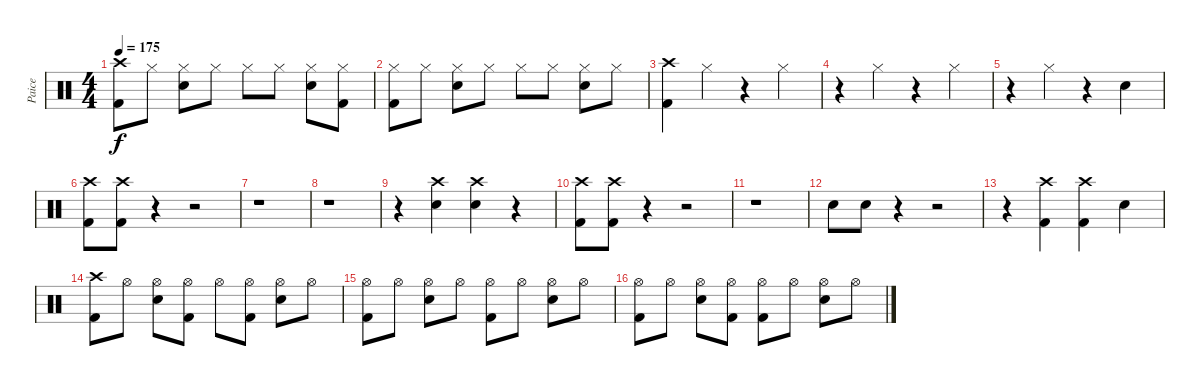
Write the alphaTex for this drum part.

\track ("Paice" "Paice") {instrument percussion}
\staff {score}
\articulation defaults
\ts (4 4)
\tempo 175
\clef neutral
\ks c
("Crash high (hit)" "Kick (hit) 2").8{dy f} "Hi-Hat (closed)".8 ("Hi-Hat (closed)" "Electric Snare (hit)").8 "Hi-Hat (closed)".8 "Hi-Hat (closed)".8 "Hi-Hat (closed)".8 ("Hi-Hat (closed)" "Electric Snare (hit)").8 ("Hi-Hat (closed)" "Kick (hit) 2").8 |
("Hi-Hat (closed)" "Kick (hit) 2").8 "Hi-Hat (closed)".8 ("Hi-Hat (closed)" "Electric Snare (hit)").8 "Hi-Hat (closed)".8 "Hi-Hat (closed)".8 "Hi-Hat (closed)".8 ("Hi-Hat (closed)" "Electric Snare (hit)").8 "Hi-Hat (closed)".8 |
("Crash high (hit)" "Kick (hit) 2").4 "Hi-Hat (closed)".4 r.4 "Hi-Hat (closed)".4 |
r.4 "Hi-Hat (closed)".4 r.4 "Hi-Hat (closed)".4 |
r.4 "Hi-Hat (closed)".4 r.4 "Electric Snare (hit)".4 |
("Crash high (hit)" "Kick (hit) 2").8 ("Crash high (hit)" "Kick (hit) 2").8 r.4 r.2 |
r.1 |
r.1 |
r.4 ("Crash high (hit)" "Electric Snare (hit)").4 ("Crash high (hit)" "Electric Snare (hit)").4 r.4 |
("Crash high (hit)" "Kick (hit) 2").8 ("Crash high (hit)" "Kick (hit) 2").8 r.4 r.2 |
r.1 |
"Electric Snare (hit)".8 "Electric Snare (hit)".8 r.4 r.2 |
r.4 ("Crash high (hit)" "Kick (hit) 2").4 ("Crash high (hit)" "Kick (hit) 2").4 "Electric Snare (hit)".4 |
("Crash high (hit)" "Kick (hit) 2").8 "Hi-Hat (open)".8 ("Hi-Hat (open)" "Electric Snare (hit)").8 ("Hi-Hat (open)" "Kick (hit) 2").8 "Hi-Hat (open)".8 ("Hi-Hat (open)" "Kick (hit) 2").8 ("Hi-Hat (open)" "Electric Snare (hit)").8 "Hi-Hat (open)".8 |
("Hi-Hat (open)" "Kick (hit) 2").8 "Hi-Hat (open)".8 ("Hi-Hat (open)" "Electric Snare (hit)").8 "Hi-Hat (open)".8 ("Hi-Hat (open)" "Kick (hit) 2").8 "Hi-Hat (open)".8 ("Hi-Hat (open)" "Electric Snare (hit)").8 "Hi-Hat (open)".8 |
("Hi-Hat (open)" "Kick (hit) 2").8 "Hi-Hat (open)".8 ("Hi-Hat (open)" "Electric Snare (hit)").8 ("Hi-Hat (open)" "Kick (hit) 2").8 ("Hi-Hat (open)" "Kick (hit) 2").8 "Hi-Hat (open)".8 ("Hi-Hat (open)" "Electric Snare (hit)").8 "Hi-Hat (open)".8
